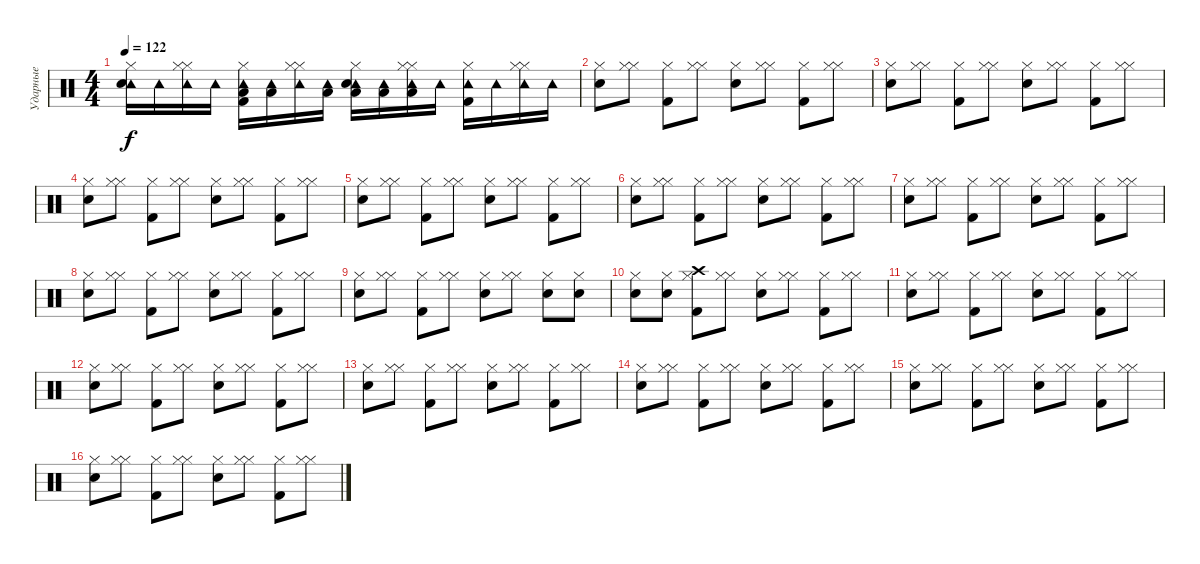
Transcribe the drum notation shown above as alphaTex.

\track ("Ударные" "Ударные") {instrument percussion}
\staff {score}
\articulation defaults
\ts (4 4)
\tempo 122
\clef neutral
\ks c
("Tambourine (hit)" "Hi-Hat (closed)" "Snare (hit) 2").16{dy f} "Tambourine (hit)".16 ("Tambourine (hit)" "Hi-Hat (closed)" "Hi-Hat (closed)").16 "Tambourine (hit)".16 ("Tambourine (hit)" "Low Tom (hit)" "Hi-Hat (closed)" "Kick (hit) 2").16 ("Tambourine (hit)" "Low Tom (hit)").16 ("Tambourine (hit)" "Hi-Hat (closed)" "Hi-Hat (closed)").16 ("Tambourine (hit)" "Low Tom (hit)").16 ("Tambourine (hit)" "Low Tom (hit)" "Hi-Hat (closed)" "Snare (hit) 2").16 ("Tambourine (hit)" "Low Tom (hit)").16 ("Tambourine (hit)" "Low Tom (hit)" "Hi-Hat (closed)" "Hi-Hat (closed)").16 "Tambourine (hit)".16 ("Tambourine (hit)" "Hi-Hat (closed)" "Kick (hit) 2").16 "Tambourine (hit)".16 ("Tambourine (hit)" "Hi-Hat (closed)" "Hi-Hat (closed)").16 "Tambourine (hit)".16 |
("Hi-Hat (closed)" "Snare (hit) 2").8 ("Hi-Hat (closed)" "Hi-Hat (closed)").8 ("Hi-Hat (closed)" "Kick (hit) 2").8 ("Hi-Hat (closed)" "Hi-Hat (closed)").8 ("Hi-Hat (closed)" "Snare (hit) 2").8 ("Hi-Hat (closed)" "Hi-Hat (closed)").8 ("Hi-Hat (closed)" "Kick (hit) 2").8 ("Hi-Hat (closed)" "Hi-Hat (closed)").8 |
("Hi-Hat (closed)" "Snare (hit) 2").8 ("Hi-Hat (closed)" "Hi-Hat (closed)").8 ("Hi-Hat (closed)" "Kick (hit) 2").8 ("Hi-Hat (closed)" "Hi-Hat (closed)").8 ("Hi-Hat (closed)" "Snare (hit) 2").8 ("Hi-Hat (closed)" "Hi-Hat (closed)").8 ("Hi-Hat (closed)" "Kick (hit) 2").8 ("Hi-Hat (closed)" "Hi-Hat (closed)").8 |
("Hi-Hat (closed)" "Snare (hit) 2").8 ("Hi-Hat (closed)" "Hi-Hat (closed)").8 ("Hi-Hat (closed)" "Kick (hit) 2").8 ("Hi-Hat (closed)" "Hi-Hat (closed)").8 ("Hi-Hat (closed)" "Snare (hit) 2").8 ("Hi-Hat (closed)" "Hi-Hat (closed)").8 ("Hi-Hat (closed)" "Kick (hit) 2").8 ("Hi-Hat (closed)" "Hi-Hat (closed)").8 |
("Hi-Hat (closed)" "Snare (hit) 2").8 ("Hi-Hat (closed)" "Hi-Hat (closed)").8 ("Hi-Hat (closed)" "Kick (hit) 2").8 ("Hi-Hat (closed)" "Hi-Hat (closed)").8 ("Hi-Hat (closed)" "Snare (hit) 2").8 ("Hi-Hat (closed)" "Hi-Hat (closed)").8 ("Hi-Hat (closed)" "Kick (hit) 2").8 ("Hi-Hat (closed)" "Hi-Hat (closed)").8 |
("Hi-Hat (closed)" "Snare (hit) 2").8 ("Hi-Hat (closed)" "Hi-Hat (closed)").8 ("Hi-Hat (closed)" "Kick (hit) 2").8 ("Hi-Hat (closed)" "Hi-Hat (closed)").8 ("Hi-Hat (closed)" "Snare (hit) 2").8 ("Hi-Hat (closed)" "Hi-Hat (closed)").8 ("Hi-Hat (closed)" "Kick (hit) 2").8 ("Hi-Hat (closed)" "Hi-Hat (closed)").8 |
("Hi-Hat (closed)" "Snare (hit) 2").8 ("Hi-Hat (closed)" "Hi-Hat (closed)").8 ("Hi-Hat (closed)" "Kick (hit) 2").8 ("Hi-Hat (closed)" "Hi-Hat (closed)").8 ("Hi-Hat (closed)" "Snare (hit) 2").8 ("Hi-Hat (closed)" "Hi-Hat (closed)").8 ("Hi-Hat (closed)" "Kick (hit) 2").8 ("Hi-Hat (closed)" "Hi-Hat (closed)").8 |
("Hi-Hat (closed)" "Snare (hit) 2").8 ("Hi-Hat (closed)" "Hi-Hat (closed)").8 ("Hi-Hat (closed)" "Kick (hit) 2").8 ("Hi-Hat (closed)" "Hi-Hat (closed)").8 ("Hi-Hat (closed)" "Snare (hit) 2").8 ("Hi-Hat (closed)" "Hi-Hat (closed)").8 ("Hi-Hat (closed)" "Kick (hit) 2").8 ("Hi-Hat (closed)" "Hi-Hat (closed)").8 |
("Hi-Hat (closed)" "Snare (hit) 2").8 ("Hi-Hat (closed)" "Hi-Hat (closed)").8 ("Hi-Hat (closed)" "Kick (hit) 2").8 ("Hi-Hat (closed)" "Hi-Hat (closed)").8 ("Hi-Hat (closed)" "Snare (hit) 2").8 ("Hi-Hat (closed)" "Hi-Hat (closed)").8 ("Hi-Hat (closed)" "Snare (hit) 2").8 ("Hi-Hat (closed)" "Snare (hit) 2").8 |
("Hi-Hat (closed)" "Snare (hit) 2").8 ("Hi-Hat (closed)" "Snare (hit) 2").8 ("Crash high (hit)" "Hi-Hat (closed)" "Kick (hit) 2").8 ("Hi-Hat (closed)" "Hi-Hat (closed)").8 ("Hi-Hat (closed)" "Snare (hit) 2").8 ("Hi-Hat (closed)" "Hi-Hat (closed)").8 ("Hi-Hat (closed)" "Kick (hit) 2").8 ("Hi-Hat (closed)" "Hi-Hat (closed)").8 |
("Hi-Hat (closed)" "Snare (hit) 2").8 ("Hi-Hat (closed)" "Hi-Hat (closed)").8 ("Hi-Hat (closed)" "Kick (hit) 2").8 ("Hi-Hat (closed)" "Hi-Hat (closed)").8 ("Hi-Hat (closed)" "Snare (hit) 2").8 ("Hi-Hat (closed)" "Hi-Hat (closed)").8 ("Hi-Hat (closed)" "Kick (hit) 2").8 ("Hi-Hat (closed)" "Hi-Hat (closed)").8 |
("Hi-Hat (closed)" "Snare (hit) 2").8 ("Hi-Hat (closed)" "Hi-Hat (closed)").8 ("Hi-Hat (closed)" "Kick (hit) 2").8 ("Hi-Hat (closed)" "Hi-Hat (closed)").8 ("Hi-Hat (closed)" "Snare (hit) 2").8 ("Hi-Hat (closed)" "Hi-Hat (closed)").8 ("Hi-Hat (closed)" "Kick (hit) 2").8 ("Hi-Hat (closed)" "Hi-Hat (closed)").8 |
("Hi-Hat (closed)" "Snare (hit) 2").8 ("Hi-Hat (closed)" "Hi-Hat (closed)").8 ("Hi-Hat (closed)" "Kick (hit) 2").8 ("Hi-Hat (closed)" "Hi-Hat (closed)").8 ("Hi-Hat (closed)" "Snare (hit) 2").8 ("Hi-Hat (closed)" "Hi-Hat (closed)").8 ("Hi-Hat (closed)" "Kick (hit) 2").8 ("Hi-Hat (closed)" "Hi-Hat (closed)").8 |
("Hi-Hat (closed)" "Snare (hit) 2").8 ("Hi-Hat (closed)" "Hi-Hat (closed)").8 ("Hi-Hat (closed)" "Kick (hit) 2").8 ("Hi-Hat (closed)" "Hi-Hat (closed)").8 ("Hi-Hat (closed)" "Snare (hit) 2").8 ("Hi-Hat (closed)" "Hi-Hat (closed)").8 ("Hi-Hat (closed)" "Kick (hit) 2").8 ("Hi-Hat (closed)" "Hi-Hat (closed)").8 |
("Hi-Hat (closed)" "Snare (hit) 2").8 ("Hi-Hat (closed)" "Hi-Hat (closed)").8 ("Hi-Hat (closed)" "Kick (hit) 2").8 ("Hi-Hat (closed)" "Hi-Hat (closed)").8 ("Hi-Hat (closed)" "Snare (hit) 2").8 ("Hi-Hat (closed)" "Hi-Hat (closed)").8 ("Hi-Hat (closed)" "Kick (hit) 2").8 ("Hi-Hat (closed)" "Hi-Hat (closed)").8 |
("Hi-Hat (closed)" "Snare (hit) 2").8 ("Hi-Hat (closed)" "Hi-Hat (closed)").8 ("Hi-Hat (closed)" "Kick (hit) 2").8 ("Hi-Hat (closed)" "Hi-Hat (closed)").8 ("Hi-Hat (closed)" "Snare (hit) 2").8 ("Hi-Hat (closed)" "Hi-Hat (closed)").8 ("Hi-Hat (closed)" "Kick (hit) 2").8 ("Hi-Hat (closed)" "Hi-Hat (closed)").8
